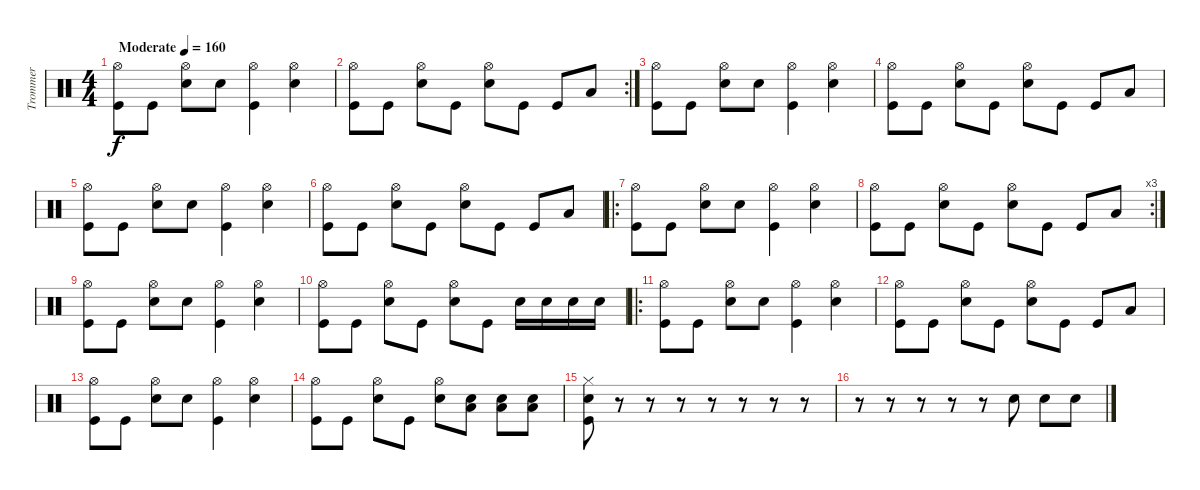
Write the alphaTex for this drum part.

\track ("Trommer" "Trommer") {instrument percussion}
\staff {score}
\articulation defaults
\ts (4 4)
\tempo (160 "Moderate")
\clef neutral
\ks c
("Hi-Hat (open)" "Kick (hit)").8{dy f} "Kick (hit)".8 ("Hi-Hat (open)" "Snare (hit) 2").8 "Snare (hit) 2".8 ("Hi-Hat (open)" "Kick (hit)").4 ("Hi-Hat (open)" "Snare (hit) 2").4 |
\rc 2
("Hi-Hat (open)" "Kick (hit)").8 "Kick (hit)".8 ("Hi-Hat (open)" "Snare (hit) 2").8 "Kick (hit)".8 ("Hi-Hat (open)" "Snare (hit) 2").8 "Kick (hit)".8 "Kick (hit)".8 "Low Floor Tom (hit)".8 |
("Hi-Hat (open)" "Kick (hit)").8 "Kick (hit)".8 ("Hi-Hat (open)" "Snare (hit) 2").8 "Snare (hit) 2".8 ("Hi-Hat (open)" "Kick (hit)").4 ("Hi-Hat (open)" "Snare (hit) 2").4 |
("Hi-Hat (open)" "Kick (hit)").8 "Kick (hit)".8 ("Hi-Hat (open)" "Snare (hit) 2").8 "Kick (hit)".8 ("Hi-Hat (open)" "Snare (hit) 2").8 "Kick (hit)".8 "Kick (hit)".8 "Low Floor Tom (hit)".8 |
("Hi-Hat (open)" "Kick (hit)").8 "Kick (hit)".8 ("Hi-Hat (open)" "Snare (hit) 2").8 "Snare (hit) 2".8 ("Hi-Hat (open)" "Kick (hit)").4 ("Hi-Hat (open)" "Snare (hit) 2").4 |
("Hi-Hat (open)" "Kick (hit)").8 "Kick (hit)".8 ("Hi-Hat (open)" "Snare (hit) 2").8 "Kick (hit)".8 ("Hi-Hat (open)" "Snare (hit) 2").8 "Kick (hit)".8 "Kick (hit)".8 "Low Floor Tom (hit)".8 |
\ro
("Hi-Hat (open)" "Kick (hit)").8 "Kick (hit)".8 ("Hi-Hat (open)" "Snare (hit) 2").8 "Snare (hit) 2".8 ("Hi-Hat (open)" "Kick (hit)").4 ("Hi-Hat (open)" "Snare (hit) 2").4 |
\rc 3
("Hi-Hat (open)" "Kick (hit)").8 "Kick (hit)".8 ("Hi-Hat (open)" "Snare (hit) 2").8 "Kick (hit)".8 ("Hi-Hat (open)" "Snare (hit) 2").8 "Kick (hit)".8 "Kick (hit)".8 "Low Floor Tom (hit)".8 |
("Hi-Hat (open)" "Kick (hit)").8 "Kick (hit)".8 ("Hi-Hat (open)" "Snare (hit) 2").8 "Snare (hit) 2".8 ("Hi-Hat (open)" "Kick (hit)").4 ("Hi-Hat (open)" "Snare (hit) 2").4 |
("Hi-Hat (open)" "Kick (hit)").8 "Kick (hit)".8 ("Hi-Hat (open)" "Snare (hit) 2").8 "Kick (hit)".8 ("Hi-Hat (open)" "Snare (hit) 2").8 "Kick (hit)".8 "Snare (hit) 2".16 "Snare (hit) 2".16 "Snare (hit) 2".16 "Snare (hit) 2".16 |
\ro
("Hi-Hat (open)" "Kick (hit)").8 "Kick (hit)".8 ("Hi-Hat (open)" "Snare (hit) 2").8 "Snare (hit) 2".8 ("Hi-Hat (open)" "Kick (hit)").4 ("Hi-Hat (open)" "Snare (hit) 2").4 |
("Hi-Hat (open)" "Kick (hit)").8 "Kick (hit)".8 ("Hi-Hat (open)" "Snare (hit) 2").8 "Kick (hit)".8 ("Hi-Hat (open)" "Snare (hit) 2").8 "Kick (hit)".8 "Kick (hit)".8 "Low Floor Tom (hit)".8 |
("Hi-Hat (open)" "Kick (hit)").8 "Kick (hit)".8 ("Hi-Hat (open)" "Snare (hit) 2").8 "Snare (hit) 2".8 ("Hi-Hat (open)" "Kick (hit)").4 ("Hi-Hat (open)" "Snare (hit) 2").4 |
("Hi-Hat (open)" "Kick (hit)").8 "Kick (hit)".8 ("Hi-Hat (open)" "Snare (hit) 2").8 "Kick (hit)".8 ("Hi-Hat (open)" "Snare (hit) 2").8 ("Snare (hit) 2" "Low Floor Tom (hit)").8 ("Snare (hit) 2" "Low Floor Tom (hit)").8 ("Snare (hit) 2" "Low Floor Tom (hit)").8 |
("Hi-Hat (closed)" "Snare (hit) 2" "Kick (hit)").8 r.8 r.8 r.8 r.8 r.8 r.8 r.8 |
r.8 r.8 r.8 r.8 r.8 "Snare (hit) 2".8 "Snare (hit) 2".8 "Snare (hit) 2".8
